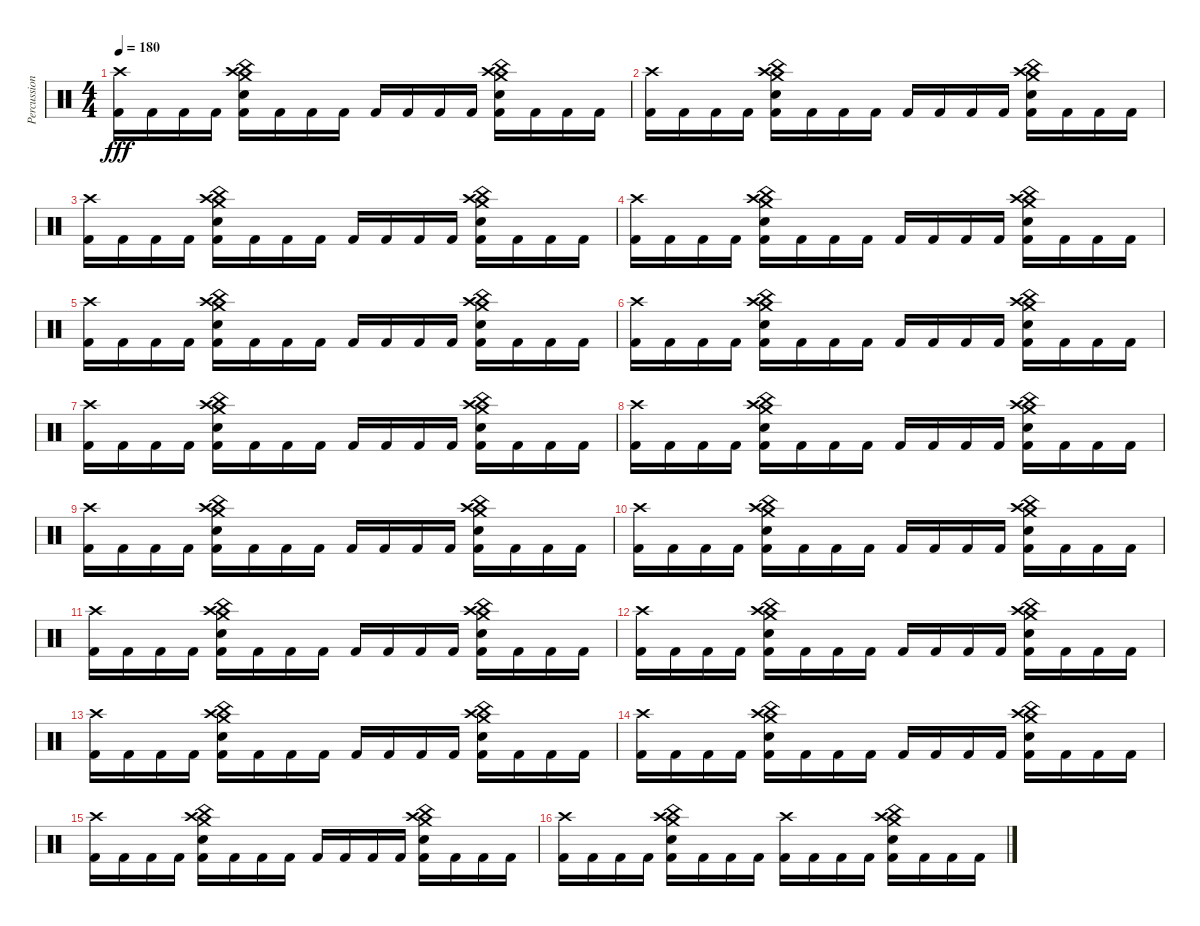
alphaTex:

\track ("Percussion" "Percussion") {instrument percussion}
\staff {score}
\articulation defaults
\ts (4 4)
\tempo 180
\clef neutral
\ks c
("Crash high (hit)" "Kick (hit) 2").16{dy fff} "Kick (hit) 2".16 "Kick (hit) 2".16 "Kick (hit) 2".16 ("Crash medium (hit)" "China (hit)" "Crash high (hit)" "Snare (hit) 2" "Kick (hit) 2").16 "Kick (hit) 2".16 "Kick (hit) 2".16 "Kick (hit) 2".16 "Kick (hit) 2".16 "Kick (hit) 2".16 "Kick (hit) 2".16 "Kick (hit) 2".16 ("Crash medium (hit)" "China (hit)" "Crash high (hit)" "Snare (hit) 2" "Kick (hit) 2").16 "Kick (hit) 2".16 "Kick (hit) 2".16 "Kick (hit) 2".16 |
("Crash high (hit)" "Kick (hit) 2").16 "Kick (hit) 2".16 "Kick (hit) 2".16 "Kick (hit) 2".16 ("Crash medium (hit)" "China (hit)" "Crash high (hit)" "Snare (hit) 2" "Kick (hit) 2").16 "Kick (hit) 2".16 "Kick (hit) 2".16 "Kick (hit) 2".16 "Kick (hit) 2".16 "Kick (hit) 2".16 "Kick (hit) 2".16 "Kick (hit) 2".16 ("Crash medium (hit)" "China (hit)" "Crash high (hit)" "Snare (hit) 2" "Kick (hit) 2").16 "Kick (hit) 2".16 "Kick (hit) 2".16 "Kick (hit) 2".16 |
("Crash high (hit)" "Kick (hit) 2").16 "Kick (hit) 2".16 "Kick (hit) 2".16 "Kick (hit) 2".16 ("Crash medium (hit)" "China (hit)" "Crash high (hit)" "Snare (hit) 2" "Kick (hit) 2").16 "Kick (hit) 2".16 "Kick (hit) 2".16 "Kick (hit) 2".16 "Kick (hit) 2".16 "Kick (hit) 2".16 "Kick (hit) 2".16 "Kick (hit) 2".16 ("Crash medium (hit)" "China (hit)" "Crash high (hit)" "Snare (hit) 2" "Kick (hit) 2").16 "Kick (hit) 2".16 "Kick (hit) 2".16 "Kick (hit) 2".16 |
("Crash high (hit)" "Kick (hit) 2").16 "Kick (hit) 2".16 "Kick (hit) 2".16 "Kick (hit) 2".16 ("Crash medium (hit)" "China (hit)" "Crash high (hit)" "Snare (hit) 2" "Kick (hit) 2").16 "Kick (hit) 2".16 "Kick (hit) 2".16 "Kick (hit) 2".16 "Kick (hit) 2".16 "Kick (hit) 2".16 "Kick (hit) 2".16 "Kick (hit) 2".16 ("Crash medium (hit)" "China (hit)" "Crash high (hit)" "Snare (hit) 2" "Kick (hit) 2").16 "Kick (hit) 2".16 "Kick (hit) 2".16 "Kick (hit) 2".16 |
("Crash high (hit)" "Kick (hit) 2").16 "Kick (hit) 2".16 "Kick (hit) 2".16 "Kick (hit) 2".16 ("Crash medium (hit)" "China (hit)" "Crash high (hit)" "Snare (hit) 2" "Kick (hit) 2").16 "Kick (hit) 2".16 "Kick (hit) 2".16 "Kick (hit) 2".16 "Kick (hit) 2".16 "Kick (hit) 2".16 "Kick (hit) 2".16 "Kick (hit) 2".16 ("Crash medium (hit)" "China (hit)" "Crash high (hit)" "Snare (hit) 2" "Kick (hit) 2").16 "Kick (hit) 2".16 "Kick (hit) 2".16 "Kick (hit) 2".16 |
("Crash high (hit)" "Kick (hit) 2").16 "Kick (hit) 2".16 "Kick (hit) 2".16 "Kick (hit) 2".16 ("Crash medium (hit)" "China (hit)" "Crash high (hit)" "Snare (hit) 2" "Kick (hit) 2").16 "Kick (hit) 2".16 "Kick (hit) 2".16 "Kick (hit) 2".16 "Kick (hit) 2".16 "Kick (hit) 2".16 "Kick (hit) 2".16 "Kick (hit) 2".16 ("Crash medium (hit)" "China (hit)" "Crash high (hit)" "Snare (hit) 2" "Kick (hit) 2").16 "Kick (hit) 2".16 "Kick (hit) 2".16 "Kick (hit) 2".16 |
("Crash high (hit)" "Kick (hit) 2").16 "Kick (hit) 2".16 "Kick (hit) 2".16 "Kick (hit) 2".16 ("Crash medium (hit)" "China (hit)" "Crash high (hit)" "Snare (hit) 2" "Kick (hit) 2").16 "Kick (hit) 2".16 "Kick (hit) 2".16 "Kick (hit) 2".16 "Kick (hit) 2".16 "Kick (hit) 2".16 "Kick (hit) 2".16 "Kick (hit) 2".16 ("Crash medium (hit)" "China (hit)" "Crash high (hit)" "Snare (hit) 2" "Kick (hit) 2").16 "Kick (hit) 2".16 "Kick (hit) 2".16 "Kick (hit) 2".16 |
("Crash high (hit)" "Kick (hit) 2").16 "Kick (hit) 2".16 "Kick (hit) 2".16 "Kick (hit) 2".16 ("Crash medium (hit)" "China (hit)" "Crash high (hit)" "Snare (hit) 2" "Kick (hit) 2").16 "Kick (hit) 2".16 "Kick (hit) 2".16 "Kick (hit) 2".16 "Kick (hit) 2".16 "Kick (hit) 2".16 "Kick (hit) 2".16 "Kick (hit) 2".16 ("Crash medium (hit)" "China (hit)" "Crash high (hit)" "Snare (hit) 2" "Kick (hit) 2").16 "Kick (hit) 2".16 "Kick (hit) 2".16 "Kick (hit) 2".16 |
("Crash high (hit)" "Kick (hit) 2").16 "Kick (hit) 2".16 "Kick (hit) 2".16 "Kick (hit) 2".16 ("Crash medium (hit)" "China (hit)" "Crash high (hit)" "Snare (hit) 2" "Kick (hit) 2").16 "Kick (hit) 2".16 "Kick (hit) 2".16 "Kick (hit) 2".16 "Kick (hit) 2".16 "Kick (hit) 2".16 "Kick (hit) 2".16 "Kick (hit) 2".16 ("Crash medium (hit)" "China (hit)" "Crash high (hit)" "Snare (hit) 2" "Kick (hit) 2").16 "Kick (hit) 2".16 "Kick (hit) 2".16 "Kick (hit) 2".16 |
("Crash high (hit)" "Kick (hit) 2").16 "Kick (hit) 2".16 "Kick (hit) 2".16 "Kick (hit) 2".16 ("Crash medium (hit)" "China (hit)" "Crash high (hit)" "Snare (hit) 2" "Kick (hit) 2").16 "Kick (hit) 2".16 "Kick (hit) 2".16 "Kick (hit) 2".16 "Kick (hit) 2".16 "Kick (hit) 2".16 "Kick (hit) 2".16 "Kick (hit) 2".16 ("Crash medium (hit)" "China (hit)" "Crash high (hit)" "Snare (hit) 2" "Kick (hit) 2").16 "Kick (hit) 2".16 "Kick (hit) 2".16 "Kick (hit) 2".16 |
("Crash high (hit)" "Kick (hit) 2").16 "Kick (hit) 2".16 "Kick (hit) 2".16 "Kick (hit) 2".16 ("Crash medium (hit)" "China (hit)" "Crash high (hit)" "Snare (hit) 2" "Kick (hit) 2").16 "Kick (hit) 2".16 "Kick (hit) 2".16 "Kick (hit) 2".16 "Kick (hit) 2".16 "Kick (hit) 2".16 "Kick (hit) 2".16 "Kick (hit) 2".16 ("Crash medium (hit)" "China (hit)" "Crash high (hit)" "Snare (hit) 2" "Kick (hit) 2").16 "Kick (hit) 2".16 "Kick (hit) 2".16 "Kick (hit) 2".16 |
("Crash high (hit)" "Kick (hit) 2").16 "Kick (hit) 2".16 "Kick (hit) 2".16 "Kick (hit) 2".16 ("Crash medium (hit)" "China (hit)" "Crash high (hit)" "Snare (hit) 2" "Kick (hit) 2").16 "Kick (hit) 2".16 "Kick (hit) 2".16 "Kick (hit) 2".16 "Kick (hit) 2".16 "Kick (hit) 2".16 "Kick (hit) 2".16 "Kick (hit) 2".16 ("Crash medium (hit)" "China (hit)" "Crash high (hit)" "Snare (hit) 2" "Kick (hit) 2").16 "Kick (hit) 2".16 "Kick (hit) 2".16 "Kick (hit) 2".16 |
("Crash high (hit)" "Kick (hit) 2").16 "Kick (hit) 2".16 "Kick (hit) 2".16 "Kick (hit) 2".16 ("Crash medium (hit)" "China (hit)" "Crash high (hit)" "Snare (hit) 2" "Kick (hit) 2").16 "Kick (hit) 2".16 "Kick (hit) 2".16 "Kick (hit) 2".16 "Kick (hit) 2".16 "Kick (hit) 2".16 "Kick (hit) 2".16 "Kick (hit) 2".16 ("Crash medium (hit)" "China (hit)" "Crash high (hit)" "Snare (hit) 2" "Kick (hit) 2").16 "Kick (hit) 2".16 "Kick (hit) 2".16 "Kick (hit) 2".16 |
("Crash high (hit)" "Kick (hit) 2").16 "Kick (hit) 2".16 "Kick (hit) 2".16 "Kick (hit) 2".16 ("Crash medium (hit)" "China (hit)" "Crash high (hit)" "Snare (hit) 2" "Kick (hit) 2").16 "Kick (hit) 2".16 "Kick (hit) 2".16 "Kick (hit) 2".16 "Kick (hit) 2".16 "Kick (hit) 2".16 "Kick (hit) 2".16 "Kick (hit) 2".16 ("Crash medium (hit)" "China (hit)" "Crash high (hit)" "Snare (hit) 2" "Kick (hit) 2").16 "Kick (hit) 2".16 "Kick (hit) 2".16 "Kick (hit) 2".16 |
("Crash high (hit)" "Kick (hit) 2").16 "Kick (hit) 2".16 "Kick (hit) 2".16 "Kick (hit) 2".16 ("Crash medium (hit)" "China (hit)" "Crash high (hit)" "Snare (hit) 2" "Kick (hit) 2").16 "Kick (hit) 2".16 "Kick (hit) 2".16 "Kick (hit) 2".16 "Kick (hit) 2".16 "Kick (hit) 2".16 "Kick (hit) 2".16 "Kick (hit) 2".16 ("Crash medium (hit)" "China (hit)" "Crash high (hit)" "Snare (hit) 2" "Kick (hit) 2").16 "Kick (hit) 2".16 "Kick (hit) 2".16 "Kick (hit) 2".16 |
("Crash high (hit)" "Kick (hit) 2").16 "Kick (hit) 2".16 "Kick (hit) 2".16 "Kick (hit) 2".16 ("Crash medium (hit)" "China (hit)" "Crash high (hit)" "Snare (hit) 2" "Kick (hit) 2").16 "Kick (hit) 2".16 "Kick (hit) 2".16 "Kick (hit) 2".16 ("Crash high (hit)" "Kick (hit) 2").16 "Kick (hit) 2".16 "Kick (hit) 2".16 "Kick (hit) 2".16 ("Crash medium (hit)" "China (hit)" "Crash high (hit)" "Snare (hit) 2" "Kick (hit) 2").16 "Kick (hit) 2".16 "Kick (hit) 2".16 "Kick (hit) 2".16
